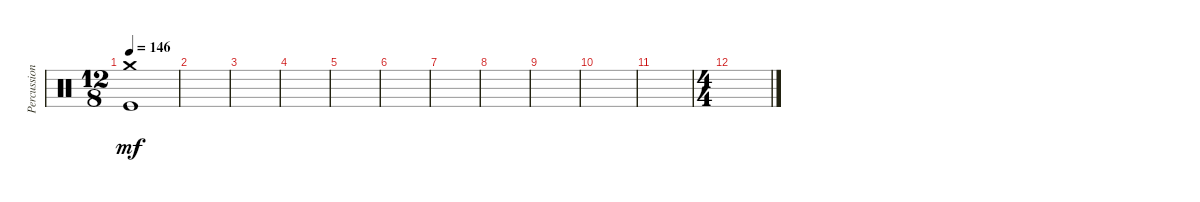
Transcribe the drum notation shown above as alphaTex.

\track ("Percussions" "Percussion") {instrument percussion}
\staff {score}
\articulation defaults
\ts (12 8)
\tempo 146
\clef neutral
\ks c
("Kick (hit)" "Crash medium (hit)").1{dy mf} |
|
|
|
|
|
|
|
|
|
|
\ts (4 4)
